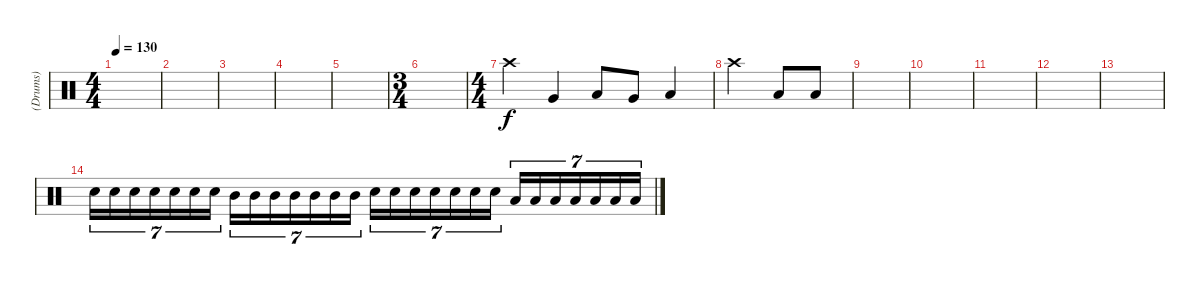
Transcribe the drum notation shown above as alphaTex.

\track ("(Drums)" "(Drums)") {instrument percussion}
\staff {score}
\articulation defaults
\ts (4 4)
\tempo 130
\clef neutral
\ks c
|
|
|
|
|
\ts (3 4)
|
\ts (4 4)
"Crash high (hit)".4 "Very Low Tom (hit)".4 "Low Floor Tom (hit)".8 "Very Low Tom (hit)".8 "Low Floor Tom (hit)".4 |
"Crash high (hit)".4 "Low Tom (hit)".8 "Low Tom (hit)".8 |
|
|
|
|
|
"Snare (hit) 2".16{tu (7 4)} "Snare (hit) 2".16{tu (7 4)} "Snare (hit) 2".16{tu (7 4)} "Snare (hit) 2".16{tu (7 4)} "Snare (hit) 2".16{tu (7 4)} "Snare (hit) 2".16{tu (7 4)} "Snare (hit) 2".16{tu (7 4)} "Mid Tom (hit)".16{tu (7 4)} "Mid Tom (hit)".16{tu (7 4)} "Mid Tom (hit)".16{tu (7 4)} "Mid Tom (hit)".16{tu (7 4)} "Mid Tom (hit)".16{tu (7 4)} "Mid Tom (hit)".16{tu (7 4)} "Mid Tom (hit)".16{tu (7 4)} "Snare (hit) 2".16{tu (7 4)} "Snare (hit) 2".16{tu (7 4)} "Snare (hit) 2".16{tu (7 4)} "Snare (hit) 2".16{tu (7 4)} "Snare (hit) 2".16{tu (7 4)} "Snare (hit) 2".16{tu (7 4)} "Snare (hit) 2".16{tu (7 4)} "Low Tom (hit)".16{tu (7 4)} "Low Tom (hit)".16{tu (7 4)} "Low Tom (hit)".16{tu (7 4)} "Low Tom (hit)".16{tu (7 4)} "Low Tom (hit)".16{tu (7 4)} "Low Tom (hit)".16{tu (7 4)} "Low Tom (hit)".16{tu (7 4)}
